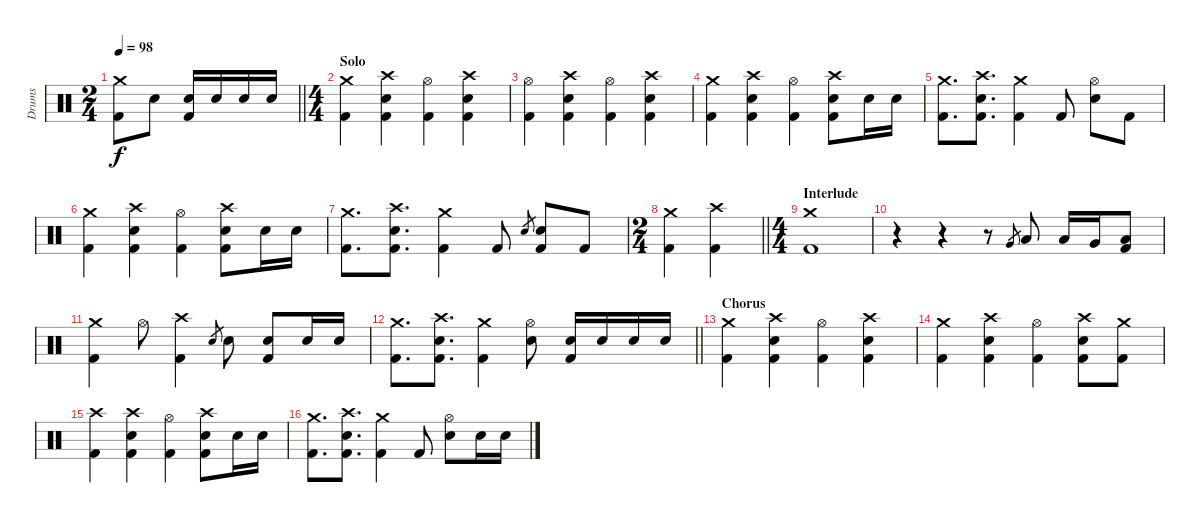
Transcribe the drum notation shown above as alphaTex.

\track ("Drums" "Drums") {instrument percussion}
\staff {score}
\articulation defaults
\ts (2 4)
\tempo 98
\clef neutral
\barLineRight lightlight
\ks c
("Crash medium (hit)" "Kick (hit) 2").8{dy f} "Electric Snare (hit)".8 ("Electric Snare (hit)" "Kick (hit) 2").16 "Electric Snare (hit)".16 "Electric Snare (hit)".16 "Electric Snare (hit)".16 |
\ts (4 4)
\section ("" "Solo")
("Crash medium (hit)" "Kick (hit) 2").4 ("Crash high (hit)" "Electric Snare (hit)" "Kick (hit) 2").4 ("Hi-Hat (open)" "Kick (hit) 2").4 ("Crash high (hit)" "Electric Snare (hit)" "Kick (hit) 2").4 |
("Hi-Hat (open)" "Kick (hit) 2").4 ("Crash high (hit)" "Electric Snare (hit)" "Kick (hit) 2").4 ("Hi-Hat (open)" "Kick (hit) 2").4 ("Crash high (hit)" "Electric Snare (hit)" "Kick (hit) 2").4 |
("Crash medium (hit)" "Kick (hit) 2").4 ("Crash high (hit)" "Electric Snare (hit)" "Kick (hit) 2").4 ("Hi-Hat (open)" "Kick (hit) 2").4 ("Crash high (hit)" "Electric Snare (hit)" "Kick (hit) 2").8 "Electric Snare (hit)".16 "Electric Snare (hit)".16 |
("Crash medium (hit)" "Kick (hit) 2").8{d} ("Crash high (hit)" "Electric Snare (hit)" "Kick (hit) 2").8{d} ("Crash medium (hit)" "Kick (hit) 2").4 "Kick (hit) 2".8 ("Hi-Hat (open)" "Electric Snare (hit)").8 "Kick (hit) 2".8 |
("Crash medium (hit)" "Kick (hit) 2").4 ("Crash high (hit)" "Electric Snare (hit)" "Kick (hit) 2").4 ("Hi-Hat (open)" "Kick (hit) 2").4 ("Crash high (hit)" "Electric Snare (hit)" "Kick (hit) 2").8 "Electric Snare (hit)".16 "Electric Snare (hit)".16 |
("Crash medium (hit)" "Kick (hit) 2").8{d} ("Crash high (hit)" "Electric Snare (hit)" "Kick (hit) 2").8{d} ("Crash medium (hit)" "Kick (hit) 2").4 "Kick (hit) 2".8 "Electric Snare (hit)".8{gr} ("Electric Snare (hit)" "Kick (hit) 2").8 "Kick (hit) 2".8 |
\ts (2 4)
\barLineRight lightlight
("Crash medium (hit)" "Kick (hit) 2").4 ("Crash high (hit)" "Kick (hit) 2").4 |
\ts (4 4)
\section ("" "Interlude")
("Crash medium (hit)" "Kick (hit) 2").1 |
r.4 r.4 r.8 "Very Low Tom (hit)".8{gr} "Low Tom (hit)".8 "Low Tom (hit)".16 "Very Low Tom (hit)".16 ("Low Floor Tom (hit)" "Kick (hit) 2").8 |
("Crash medium (hit)" "Kick (hit) 2").4 "Hi-Hat (open)".8 ("Crash high (hit)" "Kick (hit) 2").4 "Electric Snare (hit)".8{gr} "Electric Snare (hit)".8 ("Electric Snare (hit)" "Kick (hit) 2").8 "Electric Snare (hit)".16 "Electric Snare (hit)".16 |
\barLineRight lightlight
("Crash medium (hit)" "Kick (hit) 2").8{d} ("Crash high (hit)" "Electric Snare (hit)" "Kick (hit) 2").8{d} ("Crash medium (hit)" "Kick (hit) 2").4 ("Hi-Hat (open)" "Electric Snare (hit)").8 ("Electric Snare (hit)" "Kick (hit) 2").16 "Electric Snare (hit)".16 "Electric Snare (hit)".16 "Electric Snare (hit)".16 |
\section ("" "Chorus")
("Crash medium (hit)" "Kick (hit) 2").4 ("Crash high (hit)" "Electric Snare (hit)" "Kick (hit) 2").4 ("Hi-Hat (open)" "Kick (hit) 2").4 ("Crash high (hit)" "Electric Snare (hit)" "Kick (hit) 2").4 |
("Crash medium (hit)" "Kick (hit) 2").4 ("Crash high (hit)" "Electric Snare (hit)" "Kick (hit) 2").4 ("Hi-Hat (open)" "Kick (hit) 2").4 ("Crash high (hit)" "Electric Snare (hit)" "Kick (hit) 2").8 ("Crash medium (hit)" "Kick (hit) 2").8 |
("Crash high (hit)" "Kick (hit) 2").4 ("Crash high (hit)" "Electric Snare (hit)" "Kick (hit) 2").4 ("Hi-Hat (open)" "Kick (hit) 2").4 ("Crash high (hit)" "Electric Snare (hit)" "Kick (hit) 2").8 "Electric Snare (hit)".16 "Electric Snare (hit)".16 |
("Crash medium (hit)" "Kick (hit) 2").8{d} ("Crash high (hit)" "Electric Snare (hit)" "Kick (hit) 2").8{d} ("Crash medium (hit)" "Kick (hit) 2").4 "Kick (hit) 2".8 ("Hi-Hat (open)" "Electric Snare (hit)").8 "Electric Snare (hit)".16 "Electric Snare (hit)".16
